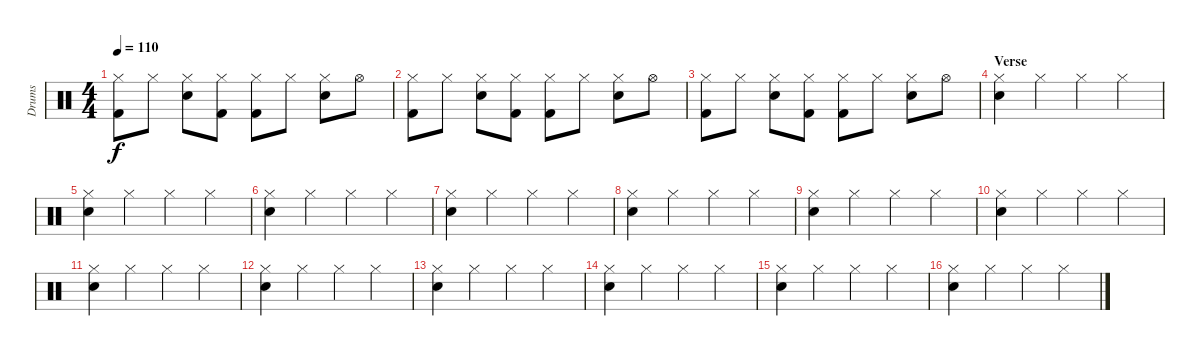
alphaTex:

\track ("Drums" "Drums") {instrument percussion}
\staff {score}
\articulation defaults
\ts (4 4)
\tempo 110
\clef neutral
\ks c
("Hi-Hat (closed)" "Kick (hit) 2").8{dy f} "Hi-Hat (closed)".8 ("Hi-Hat (closed)" "Snare (hit) 2").8 ("Hi-Hat (closed)" "Kick (hit) 2").8 ("Hi-Hat (closed)" "Kick (hit) 2").8 "Hi-Hat (closed)".8 ("Hi-Hat (closed)" "Snare (hit) 2").8 "Hi-Hat (open)".8 |
("Hi-Hat (closed)" "Kick (hit) 2").8 "Hi-Hat (closed)".8 ("Hi-Hat (closed)" "Snare (hit) 2").8 ("Hi-Hat (closed)" "Kick (hit) 2").8 ("Hi-Hat (closed)" "Kick (hit) 2").8 "Hi-Hat (closed)".8 ("Hi-Hat (closed)" "Snare (hit) 2").8 "Hi-Hat (open)".8 |
("Hi-Hat (closed)" "Kick (hit) 2").8 "Hi-Hat (closed)".8 ("Hi-Hat (closed)" "Snare (hit) 2").8 ("Hi-Hat (closed)" "Kick (hit) 2").8 ("Hi-Hat (closed)" "Kick (hit) 2").8 "Hi-Hat (closed)".8 ("Hi-Hat (closed)" "Snare (hit) 2").8 "Hi-Hat (open)".8 |
\section ("" "Verse")
("Snare (hit) 2" "Hi-Hat (closed)").4 "Hi-Hat (closed)".4 "Hi-Hat (closed)".4 "Hi-Hat (closed)".4 |
("Snare (hit) 2" "Hi-Hat (closed)").4 "Hi-Hat (closed)".4 "Hi-Hat (closed)".4 "Hi-Hat (closed)".4 |
("Snare (hit) 2" "Hi-Hat (closed)").4 "Hi-Hat (closed)".4 "Hi-Hat (closed)".4 "Hi-Hat (closed)".4 |
("Snare (hit) 2" "Hi-Hat (closed)").4 "Hi-Hat (closed)".4 "Hi-Hat (closed)".4 "Hi-Hat (closed)".4 |
("Snare (hit) 2" "Hi-Hat (closed)").4 "Hi-Hat (closed)".4 "Hi-Hat (closed)".4 "Hi-Hat (closed)".4 |
("Snare (hit) 2" "Hi-Hat (closed)").4 "Hi-Hat (closed)".4 "Hi-Hat (closed)".4 "Hi-Hat (closed)".4 |
("Snare (hit) 2" "Hi-Hat (closed)").4 "Hi-Hat (closed)".4 "Hi-Hat (closed)".4 "Hi-Hat (closed)".4 |
("Snare (hit) 2" "Hi-Hat (closed)").4 "Hi-Hat (closed)".4 "Hi-Hat (closed)".4 "Hi-Hat (closed)".4 |
("Snare (hit) 2" "Hi-Hat (closed)").4 "Hi-Hat (closed)".4 "Hi-Hat (closed)".4 "Hi-Hat (closed)".4 |
("Snare (hit) 2" "Hi-Hat (closed)").4 "Hi-Hat (closed)".4 "Hi-Hat (closed)".4 "Hi-Hat (closed)".4 |
("Snare (hit) 2" "Hi-Hat (closed)").4 "Hi-Hat (closed)".4 "Hi-Hat (closed)".4 "Hi-Hat (closed)".4 |
("Snare (hit) 2" "Hi-Hat (closed)").4 "Hi-Hat (closed)".4 "Hi-Hat (closed)".4 "Hi-Hat (closed)".4 |
("Snare (hit) 2" "Hi-Hat (closed)").4 "Hi-Hat (closed)".4 "Hi-Hat (closed)".4 "Hi-Hat (closed)".4
